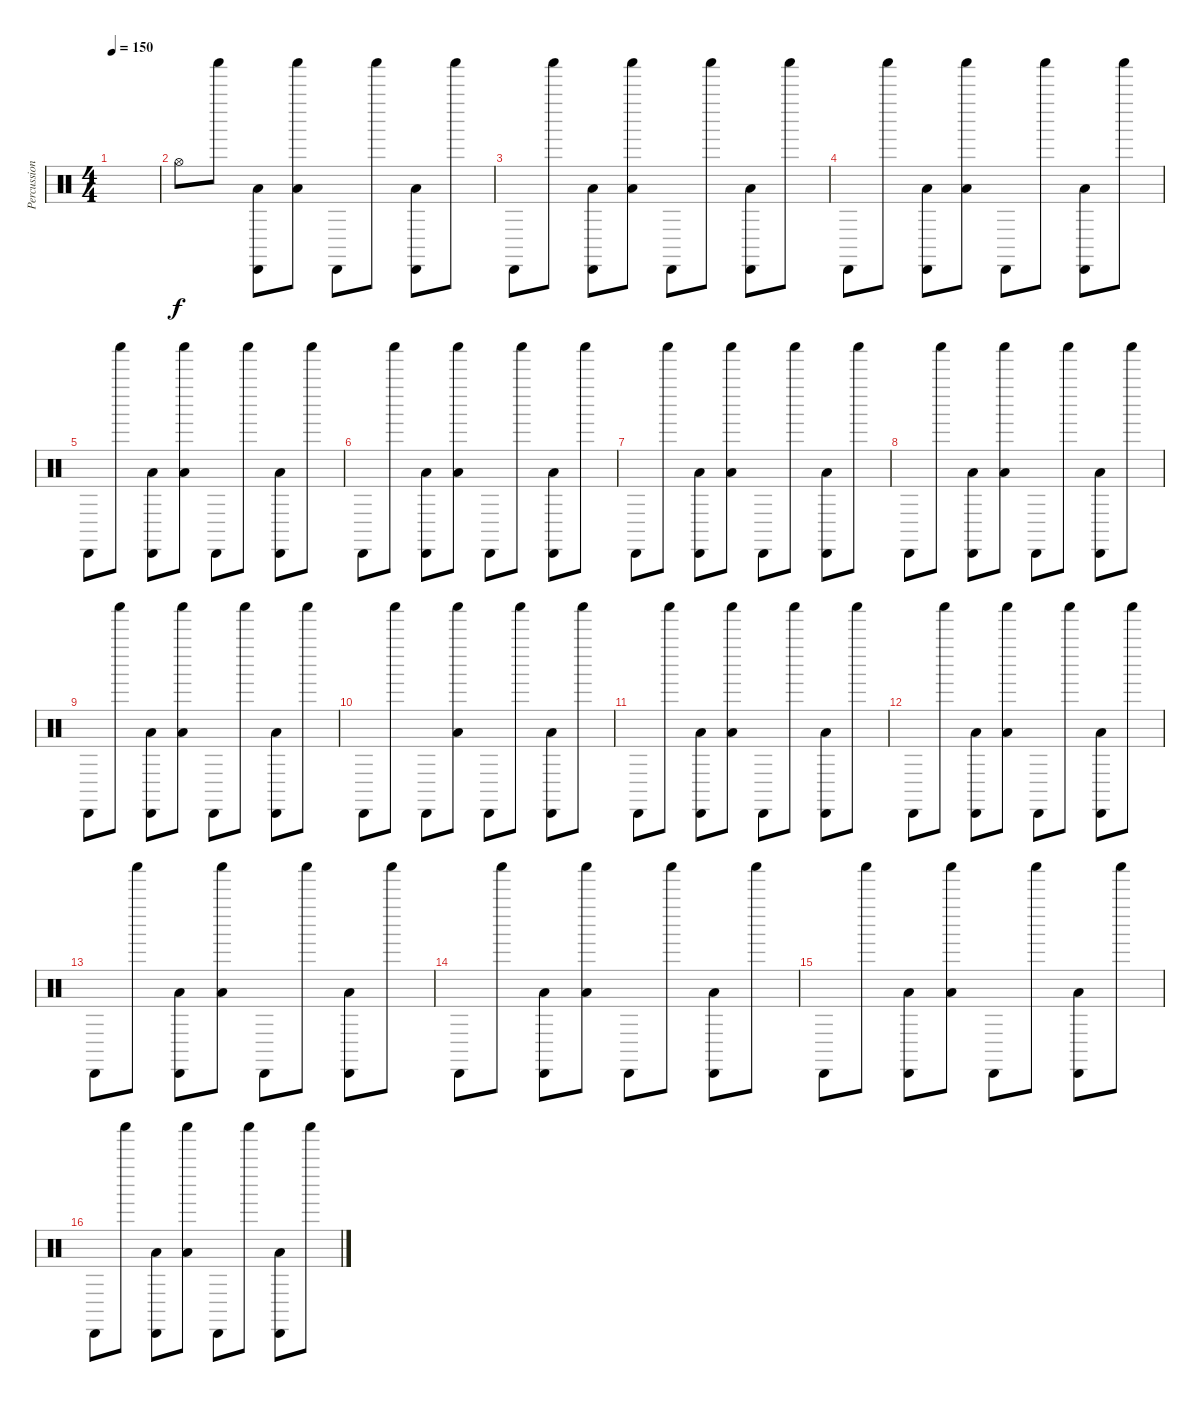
\track ("Percussion" "Percussion") {instrument percussion}
\staff
\articulation defaults
\ts (4 4)
\tempo 150
\clef neutral
\ks c
|
"Hi-Hat (open)".8 "Shaker (hit)".8 ("Cabasa (hit)" "Low Floor Tom (hit)").8 ("Shaker (hit)" "Low Floor Tom (hit)").8 "Cabasa (hit)".8 "Shaker (hit)".8 ("Cabasa (hit)" "Low Floor Tom (hit)").8 "Shaker (hit)".8 |
"Cabasa (hit)".8 "Shaker (hit)".8 ("Cabasa (hit)" "Low Floor Tom (hit)").8 ("Shaker (hit)" "Low Floor Tom (hit)").8 "Cabasa (hit)".8 "Shaker (hit)".8 ("Cabasa (hit)" "Low Floor Tom (hit)").8 "Shaker (hit)".8 |
"Cabasa (hit)".8 "Shaker (hit)".8 ("Cabasa (hit)" "Low Floor Tom (hit)").8 ("Shaker (hit)" "Low Floor Tom (hit)").8 "Cabasa (hit)".8 "Shaker (hit)".8 ("Cabasa (hit)" "Low Floor Tom (hit)").8 "Shaker (hit)".8 |
"Cabasa (hit)".8 "Shaker (hit)".8 ("Cabasa (hit)" "Low Floor Tom (hit)").8 ("Shaker (hit)" "Low Floor Tom (hit)").8 "Cabasa (hit)".8 "Shaker (hit)".8 ("Cabasa (hit)" "Low Floor Tom (hit)").8 "Shaker (hit)".8 |
"Cabasa (hit)".8 "Shaker (hit)".8 ("Cabasa (hit)" "Low Floor Tom (hit)").8 ("Shaker (hit)" "Low Floor Tom (hit)").8 "Cabasa (hit)".8 "Shaker (hit)".8 ("Cabasa (hit)" "Low Floor Tom (hit)").8 "Shaker (hit)".8 |
"Cabasa (hit)".8 "Shaker (hit)".8 ("Cabasa (hit)" "Low Floor Tom (hit)").8 ("Shaker (hit)" "Low Floor Tom (hit)").8 "Cabasa (hit)".8 "Shaker (hit)".8 ("Cabasa (hit)" "Low Floor Tom (hit)").8 "Shaker (hit)".8 |
"Cabasa (hit)".8 "Shaker (hit)".8 ("Cabasa (hit)" "Low Floor Tom (hit)").8 ("Shaker (hit)" "Low Floor Tom (hit)").8 "Cabasa (hit)".8 "Shaker (hit)".8 ("Cabasa (hit)" "Low Floor Tom (hit)").8 "Shaker (hit)".8 |
"Cabasa (hit)".8 "Shaker (hit)".8 ("Cabasa (hit)" "Low Floor Tom (hit)").8 ("Shaker (hit)" "Low Floor Tom (hit)").8 "Cabasa (hit)".8 "Shaker (hit)".8 ("Cabasa (hit)" "Low Floor Tom (hit)").8 "Shaker (hit)".8 |
"Cabasa (hit)".8 "Shaker (hit)".8 "Cabasa (hit)".8 ("Shaker (hit)" "Low Floor Tom (hit)").8 "Cabasa (hit)".8 "Shaker (hit)".8 ("Cabasa (hit)" "Low Floor Tom (hit)").8 "Shaker (hit)".8 |
"Cabasa (hit)".8 "Shaker (hit)".8 ("Cabasa (hit)" "Low Floor Tom (hit)").8 ("Shaker (hit)" "Low Floor Tom (hit)").8 "Cabasa (hit)".8 "Shaker (hit)".8 ("Cabasa (hit)" "Low Floor Tom (hit)").8 "Shaker (hit)".8 |
"Cabasa (hit)".8 "Shaker (hit)".8 ("Cabasa (hit)" "Low Floor Tom (hit)").8 ("Shaker (hit)" "Low Floor Tom (hit)").8 "Cabasa (hit)".8 "Shaker (hit)".8 ("Cabasa (hit)" "Low Floor Tom (hit)").8 "Shaker (hit)".8 |
"Cabasa (hit)".8 "Shaker (hit)".8 ("Cabasa (hit)" "Low Floor Tom (hit)").8 ("Shaker (hit)" "Low Floor Tom (hit)").8 "Cabasa (hit)".8 "Shaker (hit)".8 ("Cabasa (hit)" "Low Floor Tom (hit)").8 "Shaker (hit)".8 |
"Cabasa (hit)".8 "Shaker (hit)".8 ("Cabasa (hit)" "Low Floor Tom (hit)").8 ("Shaker (hit)" "Low Floor Tom (hit)").8 "Cabasa (hit)".8 "Shaker (hit)".8 ("Cabasa (hit)" "Low Floor Tom (hit)").8 "Shaker (hit)".8 |
"Cabasa (hit)".8 "Shaker (hit)".8 ("Cabasa (hit)" "Low Floor Tom (hit)").8 ("Shaker (hit)" "Low Floor Tom (hit)").8 "Cabasa (hit)".8 "Shaker (hit)".8 ("Cabasa (hit)" "Low Floor Tom (hit)").8 "Shaker (hit)".8 |
"Cabasa (hit)".8 "Shaker (hit)".8 ("Cabasa (hit)" "Low Floor Tom (hit)").8 ("Shaker (hit)" "Low Floor Tom (hit)").8 "Cabasa (hit)".8 "Shaker (hit)".8 ("Cabasa (hit)" "Low Floor Tom (hit)").8 "Shaker (hit)".8
